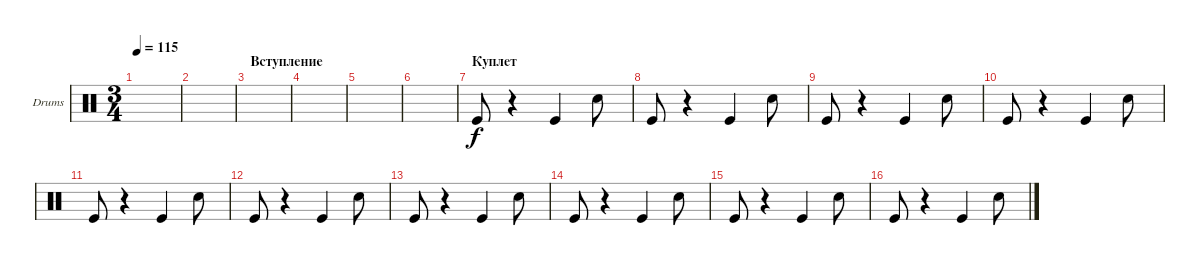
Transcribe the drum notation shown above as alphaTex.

\defaultSystemsLayout 4
\bracketExtendMode groupsimilarinstruments
\firstSystemTrackNameOrientation horizontal
\otherSystemsTrackNameOrientation horizontal
\track ("Е. Кулаков" "Drums") {instrument percussion}
\staff {score}
\articulation defaults
\ts (3 4)
\tempo 115
\clef neutral
\ks c
|
|
\section ("" "Вступление")
|
|
|
|
\section ("" "Куплет")
"Kick (hit)".8 r.4 "Kick (hit)".4 "Snare (hit) 2".8 |
"Kick (hit)".8 r.4 "Kick (hit)".4 "Snare (hit) 2".8 |
"Kick (hit)".8 r.4 "Kick (hit)".4 "Snare (hit) 2".8 |
"Kick (hit)".8 r.4 "Kick (hit)".4 "Snare (hit) 2".8 |
"Kick (hit)".8 r.4 "Kick (hit)".4 "Snare (hit) 2".8 |
"Kick (hit)".8 r.4 "Kick (hit)".4 "Snare (hit) 2".8 |
"Kick (hit)".8 r.4 "Kick (hit)".4 "Snare (hit) 2".8 |
"Kick (hit)".8 r.4 "Kick (hit)".4 "Snare (hit) 2".8 |
"Kick (hit)".8 r.4 "Kick (hit)".4 "Snare (hit) 2".8 |
"Kick (hit)".8 r.4 "Kick (hit)".4 "Snare (hit) 2".8
